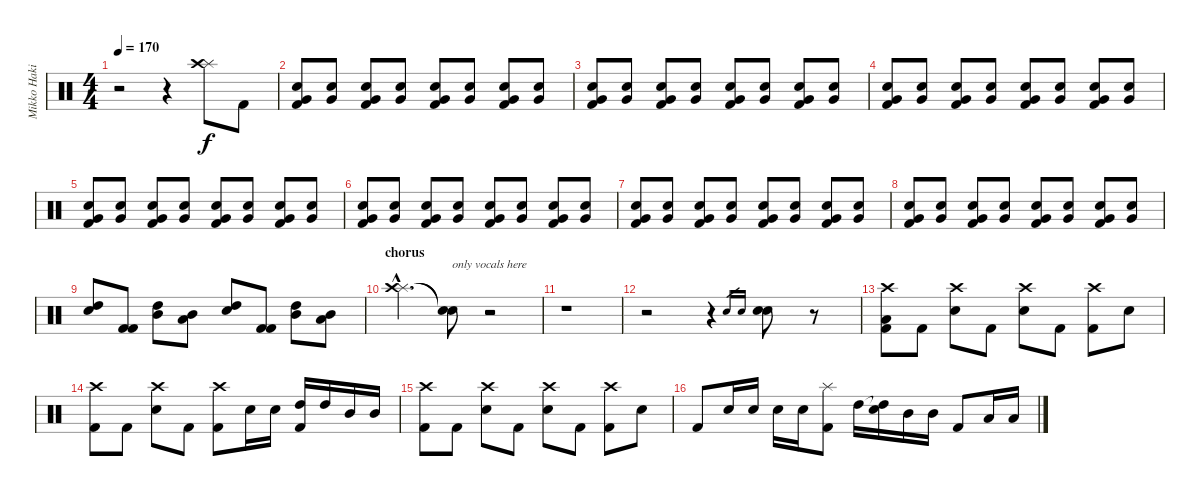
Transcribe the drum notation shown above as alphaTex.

\track ("Mikko Hakila - drums" "Mikko Haki") {instrument percussion}
\staff {score}
\articulation defaults
\ts (4 4)
\tempo 170
\clef neutral
\ks c
r.2{dy f} r.4 ("Splash (hit)" "Crash high (hit)").8 "Kick (hit) 2".8 |
("Very Low Tom (hit)" "Snare (hit) 2" "Kick (hit) 2").8 ("Very Low Tom (hit)" "Snare (hit) 2").8 ("Very Low Tom (hit)" "Snare (hit) 2" "Kick (hit) 2").8 ("Very Low Tom (hit)" "Snare (hit) 2").8 ("Very Low Tom (hit)" "Snare (hit) 2" "Kick (hit) 2").8 ("Very Low Tom (hit)" "Snare (hit) 2").8 ("Very Low Tom (hit)" "Snare (hit) 2" "Kick (hit) 2").8 ("Very Low Tom (hit)" "Snare (hit) 2").8 |
("Very Low Tom (hit)" "Snare (hit) 2" "Kick (hit) 2").8 ("Very Low Tom (hit)" "Snare (hit) 2").8 ("Very Low Tom (hit)" "Snare (hit) 2" "Kick (hit) 2").8 ("Very Low Tom (hit)" "Snare (hit) 2").8 ("Very Low Tom (hit)" "Snare (hit) 2" "Kick (hit) 2").8 ("Very Low Tom (hit)" "Snare (hit) 2").8 ("Very Low Tom (hit)" "Snare (hit) 2" "Kick (hit) 2").8 ("Very Low Tom (hit)" "Snare (hit) 2").8 |
("Very Low Tom (hit)" "Snare (hit) 2" "Kick (hit) 2").8 ("Very Low Tom (hit)" "Snare (hit) 2").8 ("Very Low Tom (hit)" "Snare (hit) 2" "Kick (hit) 2").8 ("Very Low Tom (hit)" "Snare (hit) 2").8 ("Very Low Tom (hit)" "Snare (hit) 2" "Kick (hit) 2").8 ("Very Low Tom (hit)" "Snare (hit) 2").8 ("Very Low Tom (hit)" "Snare (hit) 2" "Kick (hit) 2").8 ("Very Low Tom (hit)" "Snare (hit) 2").8 |
("Very Low Tom (hit)" "Snare (hit) 2" "Kick (hit) 2").8 ("Very Low Tom (hit)" "Snare (hit) 2").8 ("Very Low Tom (hit)" "Snare (hit) 2" "Kick (hit) 2").8 ("Very Low Tom (hit)" "Snare (hit) 2").8 ("Very Low Tom (hit)" "Snare (hit) 2" "Kick (hit) 2").8 ("Very Low Tom (hit)" "Snare (hit) 2").8 ("Very Low Tom (hit)" "Snare (hit) 2" "Kick (hit) 2").8 ("Very Low Tom (hit)" "Snare (hit) 2").8 |
("Very Low Tom (hit)" "Snare (hit) 2" "Kick (hit) 2").8 ("Very Low Tom (hit)" "Snare (hit) 2").8 ("Very Low Tom (hit)" "Snare (hit) 2" "Kick (hit) 2").8 ("Very Low Tom (hit)" "Snare (hit) 2").8 ("Very Low Tom (hit)" "Snare (hit) 2" "Kick (hit) 2").8 ("Very Low Tom (hit)" "Snare (hit) 2").8 ("Very Low Tom (hit)" "Snare (hit) 2" "Kick (hit) 2").8 ("Very Low Tom (hit)" "Snare (hit) 2").8 |
("Very Low Tom (hit)" "Snare (hit) 2" "Kick (hit) 2").8 ("Very Low Tom (hit)" "Snare (hit) 2").8 ("Very Low Tom (hit)" "Snare (hit) 2" "Kick (hit) 2").8 ("Very Low Tom (hit)" "Snare (hit) 2").8 ("Very Low Tom (hit)" "Snare (hit) 2" "Kick (hit) 2").8 ("Very Low Tom (hit)" "Snare (hit) 2").8 ("Very Low Tom (hit)" "Snare (hit) 2" "Kick (hit) 2").8 ("Very Low Tom (hit)" "Snare (hit) 2").8 |
("Very Low Tom (hit)" "Snare (hit) 2" "Kick (hit) 2").8 ("Very Low Tom (hit)" "Snare (hit) 2").8 ("Very Low Tom (hit)" "Snare (hit) 2" "Kick (hit) 2").8 ("Very Low Tom (hit)" "Snare (hit) 2").8 ("Very Low Tom (hit)" "Snare (hit) 2" "Kick (hit) 2").8 ("Very Low Tom (hit)" "Snare (hit) 2").8 ("Very Low Tom (hit)" "Snare (hit) 2" "Kick (hit) 2").8 ("Very Low Tom (hit)" "Snare (hit) 2").8 |
("High Tom (hit)" "Snare (hit) 2").8 ("Kick (hit) 2" "Kick (hit) 2").8 ("Mid Tom (hit)" "High Tom (hit)").8 ("Low Tom (hit)" "Mid Tom (hit)").8 ("High Tom (hit)" "Snare (hit) 2").8 ("Kick (hit) 2" "Kick (hit) 2").8 ("Mid Tom (hit)" "High Tom (hit)").8 ("Low Tom (hit)" "Mid Tom (hit)").8 |
\section ("" "chorus")
("Splash (hit)"{hac} "Crash high (hit)"{hac}).4{d} ("Snare (hit)"{t} "Snare (hit)"{t}).8{txt "only vocals here"} r.2 |
r.1 |
r.2 r.4 "Snare (hit) 2".16{gr} "Snare (hit) 2".16{gr} ("Snare (hit) 2" "Snare (hit) 2").8 r.8 |
("Crash high (hit)" "Low Tom (hit)" "Kick (hit) 2").8 "Kick (hit) 2".8 ("Crash high (hit)" "Snare (hit) 2").8 "Kick (hit) 2".8 ("Crash high (hit)" "Snare (hit) 2").8 "Kick (hit) 2".8 ("Crash high (hit)" "Kick (hit) 2").8 "Snare (hit) 2".8 |
("Crash high (hit)" "Kick (hit) 2").8 "Kick (hit) 2".8 ("Crash high (hit)" "Snare (hit) 2").8 "Kick (hit) 2".8 ("Crash high (hit)" "Kick (hit) 2").8 "Snare (hit) 2".16 "Snare (hit) 2".16 ("High Tom (hit)" "Kick (hit) 2").16 "High Tom (hit)".16 "Mid Tom (hit)".16 "Mid Tom (hit)".16 |
("Crash high (hit)" "Kick (hit) 2").8 "Kick (hit) 2".8 ("Crash high (hit)" "Snare (hit) 2").8 "Kick (hit) 2".8 ("Crash high (hit)" "Snare (hit) 2").8 "Kick (hit) 2".8 ("Crash high (hit)" "Kick (hit) 2").8 "Snare (hit) 2".8 |
"Kick (hit) 2".8 "Snare (hit) 2".16 "Snare (hit) 2".16 "Snare (hit) 2".16 "Snare (hit) 2".16 ("Splash (hit)" "Kick (hit) 2").8 "High Tom (hit)".16 ("Snare (hit)"{t} "High Tom (hit)").16 "Mid Tom (hit)".16 "Mid Tom (hit)".16 "Kick (hit) 2".8 "Low Tom (hit)".16 "Low Tom (hit)".16
